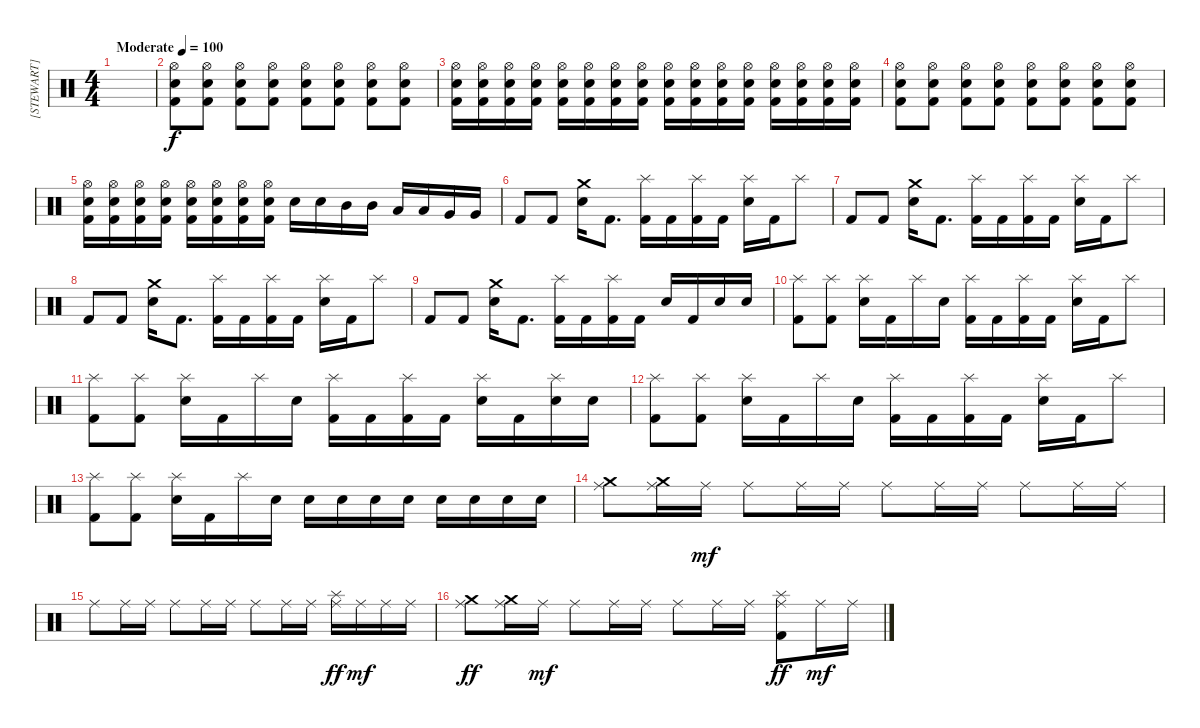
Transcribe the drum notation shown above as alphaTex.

\track ("[STEWART]" "[STEWART]") {instrument percussion}
\staff {score}
\articulation defaults
\ts (4 4)
\tempo (100 "Moderate")
\clef neutral
\ks c
|
("Hi-Hat (open)" "Electric Snare (hit)" "Kick (hit) 2").8 ("Hi-Hat (open)" "Electric Snare (hit)" "Kick (hit) 2").8 ("Hi-Hat (open)" "Electric Snare (hit)" "Kick (hit) 2").8 ("Hi-Hat (open)" "Electric Snare (hit)" "Kick (hit) 2").8 ("Hi-Hat (open)" "Electric Snare (hit)" "Kick (hit) 2").8 ("Hi-Hat (open)" "Electric Snare (hit)" "Kick (hit) 2").8 ("Hi-Hat (open)" "Electric Snare (hit)" "Kick (hit) 2").8 ("Hi-Hat (open)" "Electric Snare (hit)" "Kick (hit) 2").8 |
("Hi-Hat (open)" "Electric Snare (hit)" "Kick (hit) 2").16 ("Hi-Hat (open)" "Electric Snare (hit)" "Kick (hit) 2").16 ("Hi-Hat (open)" "Electric Snare (hit)" "Kick (hit) 2").16 ("Hi-Hat (open)" "Electric Snare (hit)" "Kick (hit) 2").16 ("Hi-Hat (open)" "Electric Snare (hit)" "Kick (hit) 2").16 ("Hi-Hat (open)" "Electric Snare (hit)" "Kick (hit) 2").16 ("Hi-Hat (open)" "Electric Snare (hit)" "Kick (hit) 2").16 ("Hi-Hat (open)" "Electric Snare (hit)" "Kick (hit) 2").16 ("Hi-Hat (open)" "Electric Snare (hit)" "Kick (hit) 2").16 ("Hi-Hat (open)" "Electric Snare (hit)" "Kick (hit) 2").16 ("Hi-Hat (open)" "Electric Snare (hit)" "Kick (hit) 2").16 ("Hi-Hat (open)" "Electric Snare (hit)" "Kick (hit) 2").16 ("Hi-Hat (open)" "Electric Snare (hit)" "Kick (hit) 2").16 ("Hi-Hat (open)" "Electric Snare (hit)" "Kick (hit) 2").16 ("Hi-Hat (open)" "Electric Snare (hit)" "Kick (hit) 2").16 ("Hi-Hat (open)" "Electric Snare (hit)" "Kick (hit) 2").16 |
("Hi-Hat (open)" "Electric Snare (hit)" "Kick (hit) 2").8 ("Hi-Hat (open)" "Electric Snare (hit)" "Kick (hit) 2").8 ("Hi-Hat (open)" "Electric Snare (hit)" "Kick (hit) 2").8 ("Hi-Hat (open)" "Electric Snare (hit)" "Kick (hit) 2").8 ("Hi-Hat (open)" "Electric Snare (hit)" "Kick (hit) 2").8 ("Hi-Hat (open)" "Electric Snare (hit)" "Kick (hit) 2").8 ("Hi-Hat (open)" "Electric Snare (hit)" "Kick (hit) 2").8 ("Hi-Hat (open)" "Electric Snare (hit)" "Kick (hit) 2").8 |
("Hi-Hat (open)" "Electric Snare (hit)" "Kick (hit) 2").16 ("Hi-Hat (open)" "Electric Snare (hit)" "Kick (hit) 2").16 ("Hi-Hat (open)" "Electric Snare (hit)" "Kick (hit) 2").16 ("Hi-Hat (open)" "Electric Snare (hit)" "Kick (hit) 2").16 ("Hi-Hat (open)" "Electric Snare (hit)" "Kick (hit) 2").16 ("Hi-Hat (open)" "Electric Snare (hit)" "Kick (hit) 2").16 ("Hi-Hat (open)" "Electric Snare (hit)" "Kick (hit) 2").16 ("Hi-Hat (open)" "Electric Snare (hit)" "Kick (hit) 2").16 "Electric Snare (hit)".16 "Electric Snare (hit)".16 "Mid Tom (hit)".16 "Mid Tom (hit)".16 "Low Tom (hit)".16 "Low Tom (hit)".16 "Very Low Tom (hit)".16 "Very Low Tom (hit)".16 |
"Kick (hit) 2".8 "Kick (hit) 2".8 ("Crash medium (hit)" "Electric Snare (hit)").16 "Kick (hit) 2".8{d} ("Splash (hit)" "Kick (hit) 2").16 "Kick (hit) 2".16 ("Splash (hit)" "Kick (hit) 2").16 "Kick (hit) 2".16 ("Splash (hit)" "Electric Snare (hit)").16 "Kick (hit) 2".16 "Splash (hit)".8 |
"Kick (hit) 2".8 "Kick (hit) 2".8 ("Crash medium (hit)" "Electric Snare (hit)").16 "Kick (hit) 2".8{d} ("Splash (hit)" "Kick (hit) 2").16 "Kick (hit) 2".16 ("Splash (hit)" "Kick (hit) 2").16 "Kick (hit) 2".16 ("Splash (hit)" "Electric Snare (hit)").16 "Kick (hit) 2".16 "Splash (hit)".8 |
"Kick (hit) 2".8 "Kick (hit) 2".8 ("Crash medium (hit)" "Electric Snare (hit)").16 "Kick (hit) 2".8{d} ("Splash (hit)" "Kick (hit) 2").16 "Kick (hit) 2".16 ("Splash (hit)" "Kick (hit) 2").16 "Kick (hit) 2".16 ("Splash (hit)" "Electric Snare (hit)").16 "Kick (hit) 2".16 "Splash (hit)".8 |
"Kick (hit) 2".8 "Kick (hit) 2".8 ("Crash medium (hit)" "Electric Snare (hit)").16 "Kick (hit) 2".8{d} ("Splash (hit)" "Kick (hit) 2").16 "Kick (hit) 2".16 ("Splash (hit)" "Kick (hit) 2").16 "Kick (hit) 2".16 "Electric Snare (hit)".16 "Kick (hit) 2".16 "Electric Snare (hit)".16 "Electric Snare (hit)".16 |
("Splash (hit)" "Kick (hit) 2").8 ("Splash (hit)" "Kick (hit) 2").8 ("Splash (hit)" "Electric Snare (hit)").16 "Kick (hit) 2".16 "Splash (hit)".16 "Electric Snare (hit)".16 ("Splash (hit)" "Kick (hit) 2").16 "Kick (hit) 2".16 ("Splash (hit)" "Kick (hit) 2").16 "Kick (hit) 2".16 ("Splash (hit)" "Electric Snare (hit)").16 "Kick (hit) 2".16 "Splash (hit)".8 |
("Splash (hit)" "Kick (hit) 2").8 ("Splash (hit)" "Kick (hit) 2").8 ("Splash (hit)" "Electric Snare (hit)").16 "Kick (hit) 2".16 "Splash (hit)".16 "Electric Snare (hit)".16 ("Splash (hit)" "Kick (hit) 2").16 "Kick (hit) 2".16 ("Splash (hit)" "Kick (hit) 2").16 "Kick (hit) 2".16 ("Splash (hit)" "Electric Snare (hit)").16 "Kick (hit) 2".16 ("Splash (hit)" "Electric Snare (hit)").16 "Electric Snare (hit)".16 |
("Splash (hit)" "Kick (hit) 2").8 ("Splash (hit)" "Kick (hit) 2").8 ("Splash (hit)" "Electric Snare (hit)").16 "Kick (hit) 2".16 "Splash (hit)".16 "Electric Snare (hit)".16 ("Splash (hit)" "Kick (hit) 2").16 "Kick (hit) 2".16 ("Splash (hit)" "Kick (hit) 2").16 "Kick (hit) 2".16 ("Splash (hit)" "Electric Snare (hit)").16 "Kick (hit) 2".16 "Splash (hit)".8 |
("Splash (hit)" "Kick (hit) 2").8 ("Splash (hit)" "Kick (hit) 2").8 ("Splash (hit)" "Electric Snare (hit)").16 "Kick (hit) 2".16 "Splash (hit)".16 "Electric Snare (hit)".16 "Electric Snare (hit)".16 "Electric Snare (hit)".16 "Electric Snare (hit)".16 "Electric Snare (hit)".16 "Electric Snare (hit)".16 "Electric Snare (hit)".16 "Electric Snare (hit)".16 "Electric Snare (hit)".16 |
("Ride (middle)" "Crash medium (hit)").8 ("Ride (middle)" "Crash medium (hit)").16 "Ride (middle)".16{dy mf} "Ride (middle)".8 "Ride (middle)".16 "Ride (middle)".16 "Ride (middle)".8 "Ride (middle)".16 "Ride (middle)".16 "Ride (middle)".8 "Ride (middle)".16 "Ride (middle)".16 |
"Ride (middle)".8 "Ride (middle)".16 "Ride (middle)".16 "Ride (middle)".8 "Ride (middle)".16 "Ride (middle)".16 "Ride (middle)".8 "Ride (middle)".16 "Ride (middle)".16 ("Ride (middle)" "Splash (hit)").16{dy ff} "Ride (middle)".16{dy mf} "Ride (middle)".16 "Ride (middle)".16 |
("Ride (middle)" "Crash medium (hit)").8{dy ff} ("Ride (middle)" "Crash medium (hit)").16 "Ride (middle)".16{dy mf} "Ride (middle)".8 "Ride (middle)".16 "Ride (middle)".16 "Ride (middle)".8 "Ride (middle)".16 "Ride (middle)".16 ("Ride (middle)" "Splash (hit)" "Kick (hit) 2").8{dy ff} "Ride (middle)".16{dy mf} "Ride (middle)".16
